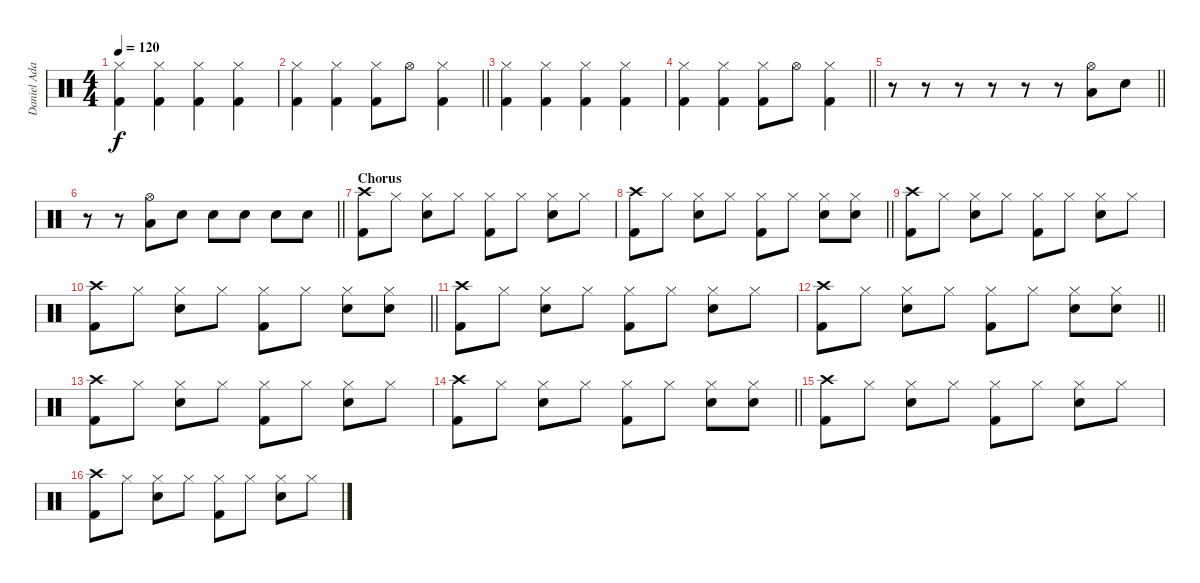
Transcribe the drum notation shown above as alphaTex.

\track ("Daniel Adair" "Daniel Ada") {instrument percussion}
\staff {score}
\articulation defaults
\ts (4 4)
\tempo 120
\clef neutral
\ks c
("Hi-Hat (closed)" "Kick (hit) 2").4{dy f} ("Hi-Hat (closed)" "Kick (hit) 2").4 ("Hi-Hat (closed)" "Kick (hit) 2").4 ("Hi-Hat (closed)" "Kick (hit) 2").4 |
\barLineRight lightlight
("Hi-Hat (closed)" "Kick (hit) 2").4 ("Hi-Hat (closed)" "Kick (hit) 2").4 ("Hi-Hat (closed)" "Kick (hit) 2").8 "Hi-Hat (open)".8 ("Hi-Hat (closed)" "Kick (hit) 2").4 |
("Hi-Hat (closed)" "Kick (hit) 2").4 ("Hi-Hat (closed)" "Kick (hit) 2").4 ("Hi-Hat (closed)" "Kick (hit) 2").4 ("Hi-Hat (closed)" "Kick (hit) 2").4 |
\barLineRight lightlight
("Hi-Hat (closed)" "Kick (hit) 2").4 ("Hi-Hat (closed)" "Kick (hit) 2").4 ("Hi-Hat (closed)" "Kick (hit) 2").8 "Hi-Hat (open)".8 ("Hi-Hat (closed)" "Kick (hit) 2").4 |
\barLineRight lightlight
r.8 r.8 r.8 r.8 r.8 r.8 ("Low Floor Tom (hit)" "Hi-Hat (open)").8 "Electric Snare (hit)".8 |
\barLineRight lightlight
r.8 r.8 ("Low Floor Tom (hit)" "Hi-Hat (open)").8 "Electric Snare (hit)".8 "Electric Snare (hit)".8 "Electric Snare (hit)".8 "Electric Snare (hit)".8 "Electric Snare (hit)".8 |
\section ("" "Chorus")
("Crash high (hit)" "Kick (hit) 2").8 "Hi-Hat (closed)".8 ("Hi-Hat (closed)" "Electric Snare (hit)").8 "Hi-Hat (closed)".8 ("Hi-Hat (closed)" "Kick (hit) 2").8 "Hi-Hat (closed)".8 ("Hi-Hat (closed)" "Electric Snare (hit)").8 "Hi-Hat (closed)".8 |
\barLineRight lightlight
("Crash high (hit)" "Kick (hit) 2").8 "Hi-Hat (closed)".8 ("Hi-Hat (closed)" "Electric Snare (hit)").8 "Hi-Hat (closed)".8 ("Hi-Hat (closed)" "Kick (hit) 2").8 "Hi-Hat (closed)".8 ("Hi-Hat (closed)" "Electric Snare (hit)").8 ("Hi-Hat (closed)" "Electric Snare (hit)").8 |
("Crash high (hit)" "Kick (hit) 2").8 "Hi-Hat (closed)".8 ("Hi-Hat (closed)" "Electric Snare (hit)").8 "Hi-Hat (closed)".8 ("Hi-Hat (closed)" "Kick (hit) 2").8 "Hi-Hat (closed)".8 ("Hi-Hat (closed)" "Electric Snare (hit)").8 "Hi-Hat (closed)".8 |
\barLineRight lightlight
("Crash high (hit)" "Kick (hit) 2").8 "Hi-Hat (closed)".8 ("Hi-Hat (closed)" "Electric Snare (hit)").8 "Hi-Hat (closed)".8 ("Hi-Hat (closed)" "Kick (hit) 2").8 "Hi-Hat (closed)".8 ("Hi-Hat (closed)" "Electric Snare (hit)").8 ("Hi-Hat (closed)" "Electric Snare (hit)").8 |
("Crash high (hit)" "Kick (hit) 2").8 "Hi-Hat (closed)".8 ("Hi-Hat (closed)" "Electric Snare (hit)").8 "Hi-Hat (closed)".8 ("Hi-Hat (closed)" "Kick (hit) 2").8 "Hi-Hat (closed)".8 ("Hi-Hat (closed)" "Electric Snare (hit)").8 "Hi-Hat (closed)".8 |
\barLineRight lightlight
("Crash high (hit)" "Kick (hit) 2").8 "Hi-Hat (closed)".8 ("Hi-Hat (closed)" "Electric Snare (hit)").8 "Hi-Hat (closed)".8 ("Hi-Hat (closed)" "Kick (hit) 2").8 "Hi-Hat (closed)".8 ("Hi-Hat (closed)" "Electric Snare (hit)").8 ("Hi-Hat (closed)" "Electric Snare (hit)").8 |
("Crash high (hit)" "Kick (hit) 2").8 "Hi-Hat (closed)".8 ("Hi-Hat (closed)" "Electric Snare (hit)").8 "Hi-Hat (closed)".8 ("Hi-Hat (closed)" "Kick (hit) 2").8 "Hi-Hat (closed)".8 ("Hi-Hat (closed)" "Electric Snare (hit)").8 "Hi-Hat (closed)".8 |
\barLineRight lightlight
("Crash high (hit)" "Kick (hit) 2").8 "Hi-Hat (closed)".8 ("Hi-Hat (closed)" "Electric Snare (hit)").8 "Hi-Hat (closed)".8 ("Hi-Hat (closed)" "Kick (hit) 2").8 "Hi-Hat (closed)".8 ("Hi-Hat (closed)" "Electric Snare (hit)").8 ("Hi-Hat (closed)" "Electric Snare (hit)").8 |
("Crash high (hit)" "Kick (hit) 2").8 "Hi-Hat (closed)".8 ("Hi-Hat (closed)" "Electric Snare (hit)").8 "Hi-Hat (closed)".8 ("Hi-Hat (closed)" "Kick (hit) 2").8 "Hi-Hat (closed)".8 ("Hi-Hat (closed)" "Electric Snare (hit)").8 "Hi-Hat (closed)".8 |
("Crash high (hit)" "Kick (hit) 2").8 "Hi-Hat (closed)".8 ("Hi-Hat (closed)" "Electric Snare (hit)").8 "Hi-Hat (closed)".8 ("Hi-Hat (closed)" "Kick (hit) 2").8 "Hi-Hat (closed)".8 ("Hi-Hat (closed)" "Electric Snare (hit)").8 "Hi-Hat (closed)".8
